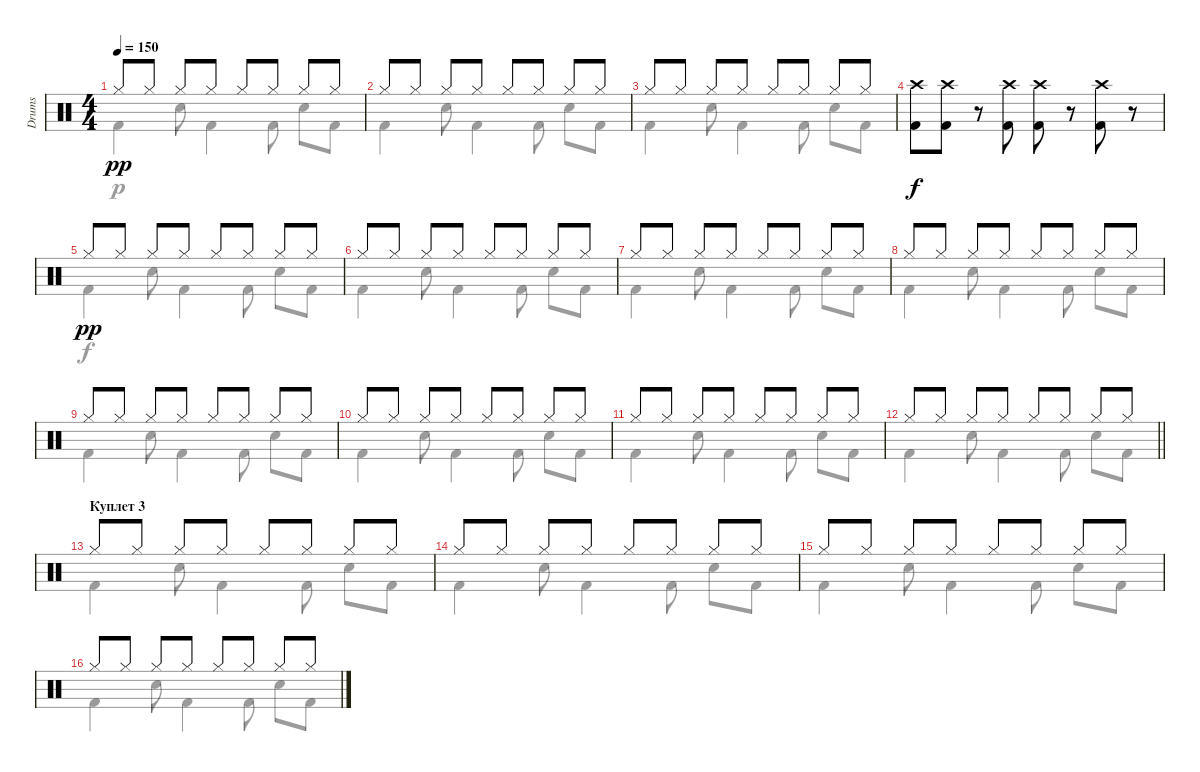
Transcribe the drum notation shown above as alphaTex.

\track ("Drums" "Drums") {instrument percussion}
\staff {score}
\articulation defaults
\voice
\ts (4 4)
\tempo 150
\clef neutral
\ks c "Hi-Hat (closed)".8{dy pp volume 4 balance 4} "Hi-Hat (closed)".8 "Hi-Hat (closed)".8 "Hi-Hat (closed)".8 "Hi-Hat (closed)".8 "Hi-Hat (closed)".8 "Hi-Hat (closed)".8 "Hi-Hat (closed)".8
|
"Hi-Hat (closed)".8 "Hi-Hat (closed)".8 "Hi-Hat (closed)".8 "Hi-Hat (closed)".8 "Hi-Hat (closed)".8 "Hi-Hat (closed)".8 "Hi-Hat (closed)".8 "Hi-Hat (closed)".8 |
"Hi-Hat (closed)".8 "Hi-Hat (closed)".8 "Hi-Hat (closed)".8 "Hi-Hat (closed)".8 "Hi-Hat (closed)".8 "Hi-Hat (closed)".8 "Hi-Hat (closed)".8 "Hi-Hat (closed)".8 |
("Crash high (hit)" "Kick (hit) 2").8{dy f volume 12 balance 8} ("Crash high (hit)" "Kick (hit) 2").8 r.8 ("Crash high (hit)" "Kick (hit) 2").8 ("Crash high (hit)" "Kick (hit) 2").8 r.8 ("Crash high (hit)" "Kick (hit) 2").8 r.8 |
"Hi-Hat (closed)".8{dy pp} "Hi-Hat (closed)".8 "Hi-Hat (closed)".8 "Hi-Hat (closed)".8 "Hi-Hat (closed)".8 "Hi-Hat (closed)".8 "Hi-Hat (closed)".8 "Hi-Hat (closed)".8 |
"Hi-Hat (closed)".8 "Hi-Hat (closed)".8 "Hi-Hat (closed)".8 "Hi-Hat (closed)".8 "Hi-Hat (closed)".8 "Hi-Hat (closed)".8 "Hi-Hat (closed)".8 "Hi-Hat (closed)".8 |
"Hi-Hat (closed)".8 "Hi-Hat (closed)".8 "Hi-Hat (closed)".8 "Hi-Hat (closed)".8 "Hi-Hat (closed)".8 "Hi-Hat (closed)".8 "Hi-Hat (closed)".8 "Hi-Hat (closed)".8 |
"Hi-Hat (closed)".8 "Hi-Hat (closed)".8 "Hi-Hat (closed)".8 "Hi-Hat (closed)".8 "Hi-Hat (closed)".8 "Hi-Hat (closed)".8 "Hi-Hat (closed)".8 "Hi-Hat (closed)".8 |
"Hi-Hat (closed)".8 "Hi-Hat (closed)".8 "Hi-Hat (closed)".8 "Hi-Hat (closed)".8 "Hi-Hat (closed)".8 "Hi-Hat (closed)".8 "Hi-Hat (closed)".8 "Hi-Hat (closed)".8 |
"Hi-Hat (closed)".8 "Hi-Hat (closed)".8 "Hi-Hat (closed)".8 "Hi-Hat (closed)".8 "Hi-Hat (closed)".8 "Hi-Hat (closed)".8 "Hi-Hat (closed)".8 "Hi-Hat (closed)".8 |
"Hi-Hat (closed)".8 "Hi-Hat (closed)".8 "Hi-Hat (closed)".8 "Hi-Hat (closed)".8 "Hi-Hat (closed)".8 "Hi-Hat (closed)".8 "Hi-Hat (closed)".8 "Hi-Hat (closed)".8 |
\barLineRight lightlight "Hi-Hat (closed)".8 "Hi-Hat (closed)".8 "Hi-Hat (closed)".8 "Hi-Hat (closed)".8 "Hi-Hat (closed)".8 "Hi-Hat (closed)".8 "Hi-Hat (closed)".8 "Hi-Hat (closed)".8
|
\section ("" "Куплет 3")
"Hi-Hat (closed)".8 "Hi-Hat (closed)".8 "Hi-Hat (closed)".8 "Hi-Hat (closed)".8 "Hi-Hat (closed)".8 "Hi-Hat (closed)".8 "Hi-Hat (closed)".8 "Hi-Hat (closed)".8 |
"Hi-Hat (closed)".8 "Hi-Hat (closed)".8 "Hi-Hat (closed)".8 "Hi-Hat (closed)".8 "Hi-Hat (closed)".8 "Hi-Hat (closed)".8 "Hi-Hat (closed)".8 "Hi-Hat (closed)".8 |
"Hi-Hat (closed)".8 "Hi-Hat (closed)".8 "Hi-Hat (closed)".8 "Hi-Hat (closed)".8 "Hi-Hat (closed)".8 "Hi-Hat (closed)".8 "Hi-Hat (closed)".8 "Hi-Hat (closed)".8 |
"Hi-Hat (closed)".8 "Hi-Hat (closed)".8 "Hi-Hat (closed)".8 "Hi-Hat (closed)".8 "Hi-Hat (closed)".8 "Hi-Hat (closed)".8 "Hi-Hat (closed)".8 "Hi-Hat (closed)".8
\voice
\clef neutral
\ottava regular
\simile none
\ks c "Kick (hit) 2".4{dy p} "Electric Snare (hit)".8 "Kick (hit) 2".4 "Kick (hit) 2".8 "Electric Snare (hit)".8 "Kick (hit) 2".8
|
"Kick (hit) 2".4 "Electric Snare (hit)".8 "Kick (hit) 2".4 "Kick (hit) 2".8 "Electric Snare (hit)".8 "Kick (hit) 2".8 |
"Kick (hit) 2".4 "Electric Snare (hit)".8 "Kick (hit) 2".4 "Kick (hit) 2".8 "Electric Snare (hit)".8 "Kick (hit) 2".8 |
|
"Kick (hit) 2".4{dy f} "Electric Snare (hit)".8 "Kick (hit) 2".4 "Kick (hit) 2".8 "Electric Snare (hit)".8 "Kick (hit) 2".8 |
"Kick (hit) 2".4 "Electric Snare (hit)".8 "Kick (hit) 2".4 "Kick (hit) 2".8 "Electric Snare (hit)".8 "Kick (hit) 2".8 |
"Kick (hit) 2".4 "Electric Snare (hit)".8 "Kick (hit) 2".4 "Kick (hit) 2".8 "Electric Snare (hit)".8 "Kick (hit) 2".8 |
"Kick (hit) 2".4 "Electric Snare (hit)".8 "Kick (hit) 2".4 "Kick (hit) 2".8 "Electric Snare (hit)".8 "Kick (hit) 2".8 |
"Kick (hit) 2".4 "Electric Snare (hit)".8 "Kick (hit) 2".4 "Kick (hit) 2".8 "Electric Snare (hit)".8 "Kick (hit) 2".8 |
"Kick (hit) 2".4 "Electric Snare (hit)".8 "Kick (hit) 2".4 "Kick (hit) 2".8 "Electric Snare (hit)".8 "Kick (hit) 2".8 |
"Kick (hit) 2".4 "Electric Snare (hit)".8 "Kick (hit) 2".4 "Kick (hit) 2".8 "Electric Snare (hit)".8 "Kick (hit) 2".8 |
\barLineRight lightlight "Kick (hit) 2".4 "Electric Snare (hit)".8 "Kick (hit) 2".4 "Kick (hit) 2".8 "Electric Snare (hit)".8 "Kick (hit) 2".8
|
"Kick (hit) 2".4 "Electric Snare (hit)".8 "Kick (hit) 2".4 "Kick (hit) 2".8 "Electric Snare (hit)".8 "Kick (hit) 2".8 |
"Kick (hit) 2".4 "Electric Snare (hit)".8 "Kick (hit) 2".4 "Kick (hit) 2".8 "Electric Snare (hit)".8 "Kick (hit) 2".8 |
"Kick (hit) 2".4 "Electric Snare (hit)".8 "Kick (hit) 2".4 "Kick (hit) 2".8 "Electric Snare (hit)".8 "Kick (hit) 2".8 |
"Kick (hit) 2".4 "Electric Snare (hit)".8 "Kick (hit) 2".4 "Kick (hit) 2".8 "Electric Snare (hit)".8 "Kick (hit) 2".8
